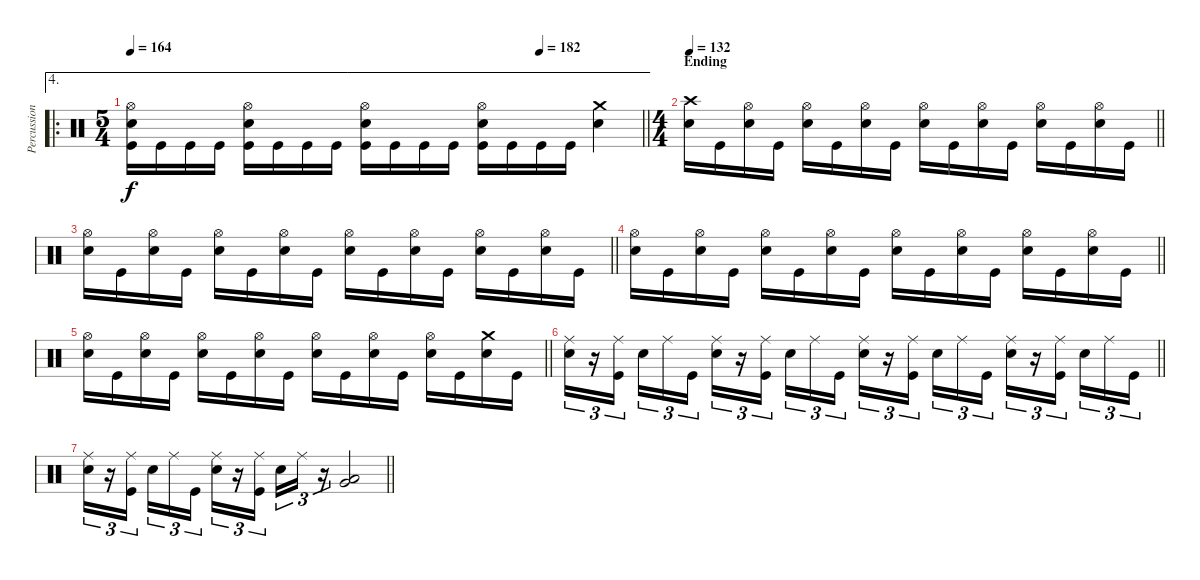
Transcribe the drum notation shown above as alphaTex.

\track ("Percussion" "Percussion") {instrument percussion}
\staff {score}
\articulation defaults
\ae 4
\ro
\ts (5 4)
\tempo 164
\tempo (182 0.8)
\clef neutral
\barLineRight lightlight
\ks c
("Snare (hit) 2" "Kick (hit)" "Hi-Hat (open)").16{dy f} "Kick (hit)".16 "Kick (hit)".16 "Kick (hit)".16 ("Snare (hit) 2" "Kick (hit)" "Hi-Hat (open)").16 "Kick (hit)".16 "Kick (hit)".16 "Kick (hit)".16 ("Snare (hit) 2" "Kick (hit)" "Hi-Hat (open)").16 "Kick (hit)".16 "Kick (hit)".16 "Kick (hit)".16 ("Snare (hit) 2" "Kick (hit)" "Hi-Hat (open)").16 "Kick (hit)".16 "Kick (hit)".16 "Kick (hit)".16 ("Snare (hit) 2" "Crash medium (hit)").4 |
\ts (4 4)
\section ("" "Ending")
\tempo 132
\barLineRight lightlight
("Snare (hit) 2" "Crash high (hit)").16 "Kick (hit)".16 ("Snare (hit) 2" "Hi-Hat (open)").16 "Kick (hit)".16 ("Snare (hit) 2" "Hi-Hat (open)").16 "Kick (hit)".16 ("Snare (hit) 2" "Hi-Hat (open)").16 "Kick (hit)".16 ("Snare (hit) 2" "Hi-Hat (open)").16 "Kick (hit)".16 ("Snare (hit) 2" "Hi-Hat (open)").16 "Kick (hit)".16 ("Snare (hit) 2" "Hi-Hat (open)").16 "Kick (hit)".16 ("Snare (hit) 2" "Hi-Hat (open)").16 "Kick (hit)".16 |
\barLineRight lightlight
("Snare (hit) 2" "Hi-Hat (open)").16 "Kick (hit)".16 ("Snare (hit) 2" "Hi-Hat (open)").16 "Kick (hit)".16 ("Snare (hit) 2" "Hi-Hat (open)").16 "Kick (hit)".16 ("Snare (hit) 2" "Hi-Hat (open)").16 "Kick (hit)".16 ("Snare (hit) 2" "Hi-Hat (open)").16 "Kick (hit)".16 ("Snare (hit) 2" "Hi-Hat (open)").16 "Kick (hit)".16 ("Snare (hit) 2" "Hi-Hat (open)").16 "Kick (hit)".16 ("Snare (hit) 2" "Hi-Hat (open)").16 "Kick (hit)".16 |
\barLineRight lightlight
("Snare (hit) 2" "Hi-Hat (open)").16 "Kick (hit)".16 ("Snare (hit) 2" "Hi-Hat (open)").16 "Kick (hit)".16 ("Snare (hit) 2" "Hi-Hat (open)").16 "Kick (hit)".16 ("Snare (hit) 2" "Hi-Hat (open)").16 "Kick (hit)".16 ("Snare (hit) 2" "Hi-Hat (open)").16 "Kick (hit)".16 ("Snare (hit) 2" "Hi-Hat (open)").16 "Kick (hit)".16 ("Snare (hit) 2" "Hi-Hat (open)").16 "Kick (hit)".16 ("Snare (hit) 2" "Hi-Hat (open)").16 "Kick (hit)".16 |
\barLineRight lightlight
("Snare (hit) 2" "Hi-Hat (open)").16 "Kick (hit)".16 ("Snare (hit) 2" "Hi-Hat (open)").16 "Kick (hit)".16 ("Snare (hit) 2" "Hi-Hat (open)").16 "Kick (hit)".16 ("Snare (hit) 2" "Hi-Hat (open)").16 "Kick (hit)".16 ("Snare (hit) 2" "Hi-Hat (open)").16 "Kick (hit)".16 ("Snare (hit) 2" "Hi-Hat (open)").16 "Kick (hit)".16 ("Snare (hit) 2" "Hi-Hat (open)").16 "Kick (hit)".16 ("Snare (hit) 2" "Crash medium (hit)").16 "Kick (hit)".16 |
\barLineRight lightlight
("Snare (hit) 2" "Ride (middle)").16{tu (3 2)} r.16{tu (3 2)} ("Kick (hit)" "Ride (middle)").16{tu (3 2)} "Snare (hit) 2".16{tu (3 2)} "Ride (middle)".16{tu (3 2)} "Kick (hit)".16{tu (3 2)} ("Snare (hit) 2" "Ride (middle)").16{tu (3 2)} r.16{tu (3 2)} ("Kick (hit)" "Ride (middle)").16{tu (3 2)} "Snare (hit) 2".16{tu (3 2)} "Ride (middle)".16{tu (3 2)} "Kick (hit)".16{tu (3 2)} ("Snare (hit) 2" "Ride (middle)").16{tu (3 2)} r.16{tu (3 2)} ("Kick (hit)" "Ride (middle)").16{tu (3 2)} "Snare (hit) 2".16{tu (3 2)} "Ride (middle)".16{tu (3 2)} "Kick (hit)".16{tu (3 2)} ("Snare (hit) 2" "Ride (middle)").16{tu (3 2)} r.16{tu (3 2)} ("Kick (hit)" "Ride (middle)").16{tu (3 2)} "Snare (hit) 2".16{tu (3 2)} "Ride (middle)".16{tu (3 2)} "Kick (hit)".16{tu (3 2)} |
\barLineRight lightlight
("Snare (hit) 2" "Ride (middle)").16{tu (3 2)} r.16{tu (3 2)} ("Kick (hit)" "Ride (middle)").16{tu (3 2)} "Snare (hit) 2".16{tu (3 2)} "Ride (middle)".16{tu (3 2)} "Kick (hit)".16{tu (3 2)} ("Snare (hit) 2" "Ride (middle)").16{tu (3 2)} r.16{tu (3 2)} ("Kick (hit)" "Ride (middle)").16{tu (3 2)} "Snare (hit) 2".16{tu (3 2)} "Ride (middle)".16{tu (3 2)} r.16{tu (3 2)} ("Low Floor Tom (hit)" "Very Low Tom (hit)").2
